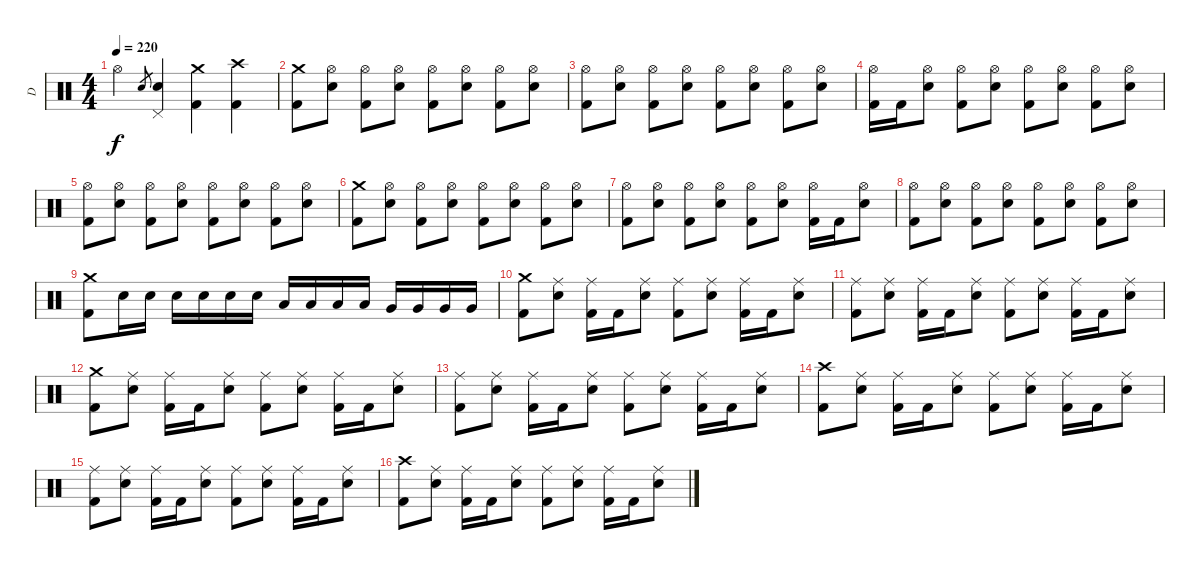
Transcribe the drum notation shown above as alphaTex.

\track ("D" "D") {instrument percussion}
\staff {score}
\articulation defaults
\ts (4 4)
\tempo 220
\clef neutral
\ks c "Hi-Hat (open)".4{dy f} "Electric Snare (hit)".8{gr}
("Pedal Hi-Hat (hit)" "Electric Snare (hit)").4 ("Crash medium (hit)" "Kick (hit) 2").4 ("Crash high (hit)" "Kick (hit) 2").4 |
("Crash medium (hit)" "Kick (hit) 2").8 ("Hi-Hat (open)" "Electric Snare (hit)").8 ("Hi-Hat (open)" "Kick (hit) 2").8 ("Hi-Hat (open)" "Electric Snare (hit)").8 ("Hi-Hat (open)" "Kick (hit) 2").8 ("Hi-Hat (open)" "Electric Snare (hit)").8 ("Hi-Hat (open)" "Kick (hit) 2").8 ("Hi-Hat (open)" "Electric Snare (hit)").8 |
("Hi-Hat (open)" "Kick (hit) 2").8 ("Hi-Hat (open)" "Electric Snare (hit)").8 ("Hi-Hat (open)" "Kick (hit) 2").8 ("Hi-Hat (open)" "Electric Snare (hit)").8 ("Hi-Hat (open)" "Kick (hit) 2").8 ("Hi-Hat (open)" "Electric Snare (hit)").8 ("Hi-Hat (open)" "Kick (hit) 2").8 ("Hi-Hat (open)" "Electric Snare (hit)").8 |
("Hi-Hat (open)" "Kick (hit) 2").16 "Kick (hit) 2".16 ("Hi-Hat (open)" "Electric Snare (hit)").8 ("Hi-Hat (open)" "Kick (hit) 2").8 ("Hi-Hat (open)" "Electric Snare (hit)").8 ("Hi-Hat (open)" "Kick (hit) 2").8 ("Hi-Hat (open)" "Electric Snare (hit)").8 ("Hi-Hat (open)" "Kick (hit) 2").8 ("Hi-Hat (open)" "Electric Snare (hit)").8 |
("Hi-Hat (open)" "Kick (hit) 2").8 ("Hi-Hat (open)" "Electric Snare (hit)").8 ("Hi-Hat (open)" "Kick (hit) 2").8 ("Hi-Hat (open)" "Electric Snare (hit)").8 ("Hi-Hat (open)" "Kick (hit) 2").8 ("Hi-Hat (open)" "Electric Snare (hit)").8 ("Hi-Hat (open)" "Kick (hit) 2").8 ("Hi-Hat (open)" "Electric Snare (hit)").8 |
("Crash medium (hit)" "Kick (hit) 2").8 ("Hi-Hat (open)" "Electric Snare (hit)").8 ("Hi-Hat (open)" "Kick (hit) 2").8 ("Hi-Hat (open)" "Electric Snare (hit)").8 ("Hi-Hat (open)" "Kick (hit) 2").8 ("Hi-Hat (open)" "Electric Snare (hit)").8 ("Hi-Hat (open)" "Kick (hit) 2").8 ("Hi-Hat (open)" "Electric Snare (hit)").8 |
("Hi-Hat (open)" "Kick (hit) 2").8 ("Hi-Hat (open)" "Electric Snare (hit)").8 ("Hi-Hat (open)" "Kick (hit) 2").8 ("Hi-Hat (open)" "Electric Snare (hit)").8 ("Hi-Hat (open)" "Kick (hit) 2").8 ("Hi-Hat (open)" "Electric Snare (hit)").8 ("Hi-Hat (open)" "Kick (hit) 2").16 "Kick (hit) 2".16 ("Hi-Hat (open)" "Electric Snare (hit)").8 |
("Hi-Hat (open)" "Kick (hit) 2").8 ("Hi-Hat (open)" "Electric Snare (hit)").8 ("Hi-Hat (open)" "Kick (hit) 2").8 ("Hi-Hat (open)" "Electric Snare (hit)").8 ("Hi-Hat (open)" "Kick (hit) 2").8 ("Hi-Hat (open)" "Electric Snare (hit)").8 ("Hi-Hat (open)" "Kick (hit) 2").8 ("Hi-Hat (open)" "Electric Snare (hit)").8 |
("Crash medium (hit)" "Kick (hit) 2").8 "Electric Snare (hit)".16 "Electric Snare (hit)".16 "Electric Snare (hit)".16 "Electric Snare (hit)".16 "Electric Snare (hit)".16 "Electric Snare (hit)".16 "Low Tom (hit)".16 "Low Tom (hit)".16 "Low Tom (hit)".16 "Low Tom (hit)".16 "Very Low Tom (hit)".16 "Very Low Tom (hit)".16 "Very Low Tom (hit)".16 "Very Low Tom (hit)".16 |
("Crash medium (hit)" "Kick (hit) 2").8 ("Ride (middle)" "Electric Snare (hit)").8 ("Ride (middle)" "Kick (hit) 2").16 "Kick (hit) 2".16 ("Ride (middle)" "Electric Snare (hit)").8 ("Ride (middle)" "Kick (hit) 2").8 ("Ride (middle)" "Electric Snare (hit)").8 ("Ride (middle)" "Kick (hit) 2").16 "Kick (hit) 2".16 ("Ride (middle)" "Electric Snare (hit)").8 |
("Ride (middle)" "Kick (hit) 2").8 ("Ride (middle)" "Electric Snare (hit)").8 ("Ride (middle)" "Kick (hit) 2").16 "Kick (hit) 2".16 ("Ride (middle)" "Electric Snare (hit)").8 ("Ride (middle)" "Kick (hit) 2").8 ("Ride (middle)" "Electric Snare (hit)").8 ("Ride (middle)" "Kick (hit) 2").16 "Kick (hit) 2".16 ("Ride (middle)" "Electric Snare (hit)").8 |
("Crash medium (hit)" "Kick (hit) 2").8 ("Ride (middle)" "Electric Snare (hit)").8 ("Ride (middle)" "Kick (hit) 2").16 "Kick (hit) 2".16 ("Ride (middle)" "Electric Snare (hit)").8 ("Ride (middle)" "Kick (hit) 2").8 ("Ride (middle)" "Electric Snare (hit)").8 ("Ride (middle)" "Kick (hit) 2").16 "Kick (hit) 2".16 ("Ride (middle)" "Electric Snare (hit)").8 |
("Ride (middle)" "Kick (hit) 2").8 ("Ride (middle)" "Electric Snare (hit)").8 ("Ride (middle)" "Kick (hit) 2").16 "Kick (hit) 2".16 ("Ride (middle)" "Electric Snare (hit)").8 ("Ride (middle)" "Kick (hit) 2").8 ("Ride (middle)" "Electric Snare (hit)").8 ("Ride (middle)" "Kick (hit) 2").16 "Kick (hit) 2".16 ("Ride (middle)" "Electric Snare (hit)").8 |
("Crash high (hit)" "Kick (hit) 2").8 ("Ride (middle)" "Electric Snare (hit)").8 ("Ride (middle)" "Kick (hit) 2").16 "Kick (hit) 2".16 ("Ride (middle)" "Electric Snare (hit)").8 ("Ride (middle)" "Kick (hit) 2").8 ("Ride (middle)" "Electric Snare (hit)").8 ("Ride (middle)" "Kick (hit) 2").16 "Kick (hit) 2".16 ("Ride (middle)" "Electric Snare (hit)").8 |
("Ride (middle)" "Kick (hit) 2").8 ("Ride (middle)" "Electric Snare (hit)").8 ("Ride (middle)" "Kick (hit) 2").16 "Kick (hit) 2".16 ("Ride (middle)" "Electric Snare (hit)").8 ("Ride (middle)" "Kick (hit) 2").8 ("Ride (middle)" "Electric Snare (hit)").8 ("Ride (middle)" "Kick (hit) 2").16 "Kick (hit) 2".16 ("Ride (middle)" "Electric Snare (hit)").8 |
("Crash high (hit)" "Kick (hit) 2").8 ("Ride (middle)" "Electric Snare (hit)").8 ("Ride (middle)" "Kick (hit) 2").16 "Kick (hit) 2".16 ("Ride (middle)" "Electric Snare (hit)").8 ("Ride (middle)" "Kick (hit) 2").8 ("Ride (middle)" "Electric Snare (hit)").8 ("Ride (middle)" "Kick (hit) 2").16 "Kick (hit) 2".16 ("Ride (middle)" "Electric Snare (hit)").8
